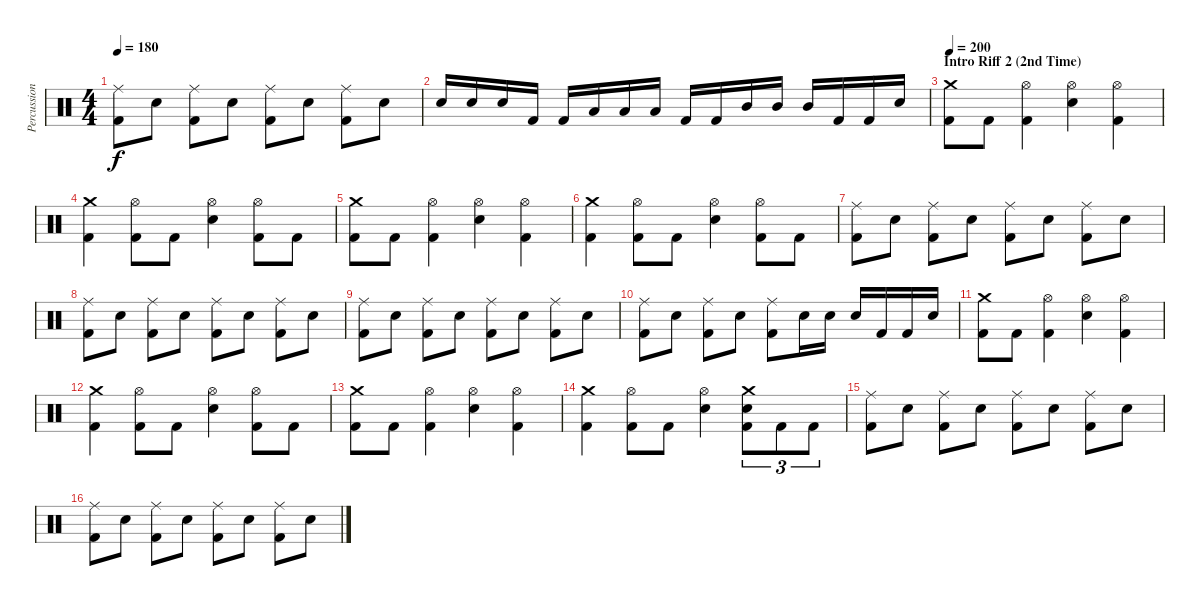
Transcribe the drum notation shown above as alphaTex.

\track ("Percussion" "Percussion") {instrument percussion}
\staff {score}
\articulation defaults
\ts (4 4)
\tempo 180
\clef neutral
\ks c
("Ride (middle)" "Kick (hit) 2").8{dy f} "Electric Snare (hit)".8 ("Ride (middle)" "Kick (hit) 2").8 "Electric Snare (hit)".8 ("Ride (middle)" "Kick (hit) 2").8 "Electric Snare (hit)".8 ("Ride (middle)" "Kick (hit) 2").8 "Electric Snare (hit)".8 |
"Electric Snare (hit)".16 "Electric Snare (hit)".16 "Electric Snare (hit)".16 "Kick (hit) 2".16 "Kick (hit) 2".16 "Low Tom (hit)".16 "Low Tom (hit)".16 "Low Tom (hit)".16 "Kick (hit) 2".16 "Kick (hit) 2".16 "Mid Tom (hit)".16 "Mid Tom (hit)".16 "Mid Tom (hit)".16 "Kick (hit) 2".16 "Kick (hit) 2".16 "Electric Snare (hit)".16 |
\section ("" "Intro Riff 2 (2nd Time)")
\tempo 200
("Crash medium (hit)" "Kick (hit) 2").8 "Kick (hit) 2".8 ("Hi-Hat (open)" "Kick (hit) 2").4 ("Hi-Hat (open)" "Electric Snare (hit)").4 ("Hi-Hat (open)" "Kick (hit) 2").4 |
("Crash medium (hit)" "Kick (hit) 2").4 ("Hi-Hat (open)" "Kick (hit) 2").8 "Kick (hit) 2".8 ("Hi-Hat (open)" "Electric Snare (hit)").4 ("Hi-Hat (open)" "Kick (hit) 2").8 "Kick (hit) 2".8 |
("Crash medium (hit)" "Kick (hit) 2").8 "Kick (hit) 2".8 ("Hi-Hat (open)" "Kick (hit) 2").4 ("Hi-Hat (open)" "Electric Snare (hit)").4 ("Hi-Hat (open)" "Kick (hit) 2").4 |
("Crash medium (hit)" "Kick (hit) 2").4 ("Hi-Hat (open)" "Kick (hit) 2").8 "Kick (hit) 2".8 ("Hi-Hat (open)" "Electric Snare (hit)").4 ("Hi-Hat (open)" "Kick (hit) 2").8 "Kick (hit) 2".8 |
("Ride (middle)" "Kick (hit) 2").8 "Electric Snare (hit)".8 ("Ride (middle)" "Kick (hit) 2").8 "Electric Snare (hit)".8 ("Ride (middle)" "Kick (hit) 2").8 "Electric Snare (hit)".8 ("Ride (middle)" "Kick (hit) 2").8 "Electric Snare (hit)".8 |
("Ride (middle)" "Kick (hit) 2").8 "Electric Snare (hit)".8 ("Ride (middle)" "Kick (hit) 2").8 "Electric Snare (hit)".8 ("Ride (middle)" "Kick (hit) 2").8 "Electric Snare (hit)".8 ("Ride (middle)" "Kick (hit) 2").8 "Electric Snare (hit)".8 |
("Ride (middle)" "Kick (hit) 2").8 "Electric Snare (hit)".8 ("Ride (middle)" "Kick (hit) 2").8 "Electric Snare (hit)".8 ("Ride (middle)" "Kick (hit) 2").8 "Electric Snare (hit)".8 ("Ride (middle)" "Kick (hit) 2").8 "Electric Snare (hit)".8 |
("Ride (middle)" "Kick (hit) 2").8 "Electric Snare (hit)".8 ("Ride (middle)" "Kick (hit) 2").8 "Electric Snare (hit)".8 ("Ride (middle)" "Kick (hit) 2").8 "Electric Snare (hit)".16 "Electric Snare (hit)".16 "Electric Snare (hit)".16 "Kick (hit) 2".16 "Kick (hit) 2".16 "Electric Snare (hit)".16 |
("Crash medium (hit)" "Kick (hit) 2").8 "Kick (hit) 2".8 ("Hi-Hat (open)" "Kick (hit) 2").4 ("Hi-Hat (open)" "Electric Snare (hit)").4 ("Hi-Hat (open)" "Kick (hit) 2").4 |
("Crash medium (hit)" "Kick (hit) 2").4 ("Hi-Hat (open)" "Kick (hit) 2").8 "Kick (hit) 2".8 ("Hi-Hat (open)" "Electric Snare (hit)").4 ("Hi-Hat (open)" "Kick (hit) 2").8 "Kick (hit) 2".8 |
("Crash medium (hit)" "Kick (hit) 2").8 "Kick (hit) 2".8 ("Hi-Hat (open)" "Kick (hit) 2").4 ("Hi-Hat (open)" "Electric Snare (hit)").4 ("Hi-Hat (open)" "Kick (hit) 2").4 |
("Crash medium (hit)" "Kick (hit) 2").4 ("Hi-Hat (open)" "Kick (hit) 2").8 "Kick (hit) 2".8 ("Hi-Hat (open)" "Electric Snare (hit)").4 ("Crash medium (hit)" "Electric Snare (hit)" "Kick (hit) 2").8{tu (3 2)} "Kick (hit) 2".8{tu (3 2)} "Kick (hit) 2".8{tu (3 2)} |
("Ride (middle)" "Kick (hit) 2").8 "Electric Snare (hit)".8 ("Ride (middle)" "Kick (hit) 2").8 "Electric Snare (hit)".8 ("Ride (middle)" "Kick (hit) 2").8 "Electric Snare (hit)".8 ("Ride (middle)" "Kick (hit) 2").8 "Electric Snare (hit)".8 |
("Ride (middle)" "Kick (hit) 2").8 "Electric Snare (hit)".8 ("Ride (middle)" "Kick (hit) 2").8 "Electric Snare (hit)".8 ("Ride (middle)" "Kick (hit) 2").8 "Electric Snare (hit)".8 ("Ride (middle)" "Kick (hit) 2").8 "Electric Snare (hit)".8
